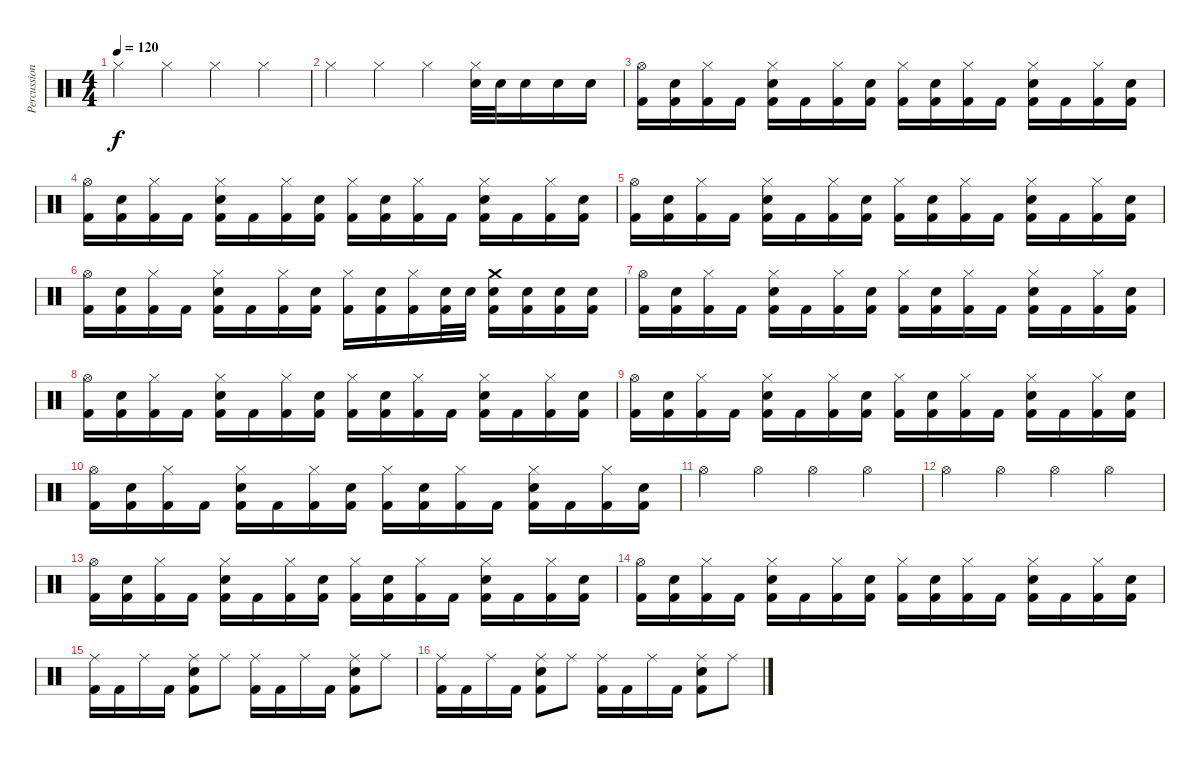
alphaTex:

\track ("Percussions" "Percussion") {instrument percussion}
\staff {score}
\articulation defaults
\ts (4 4)
\tempo 120
\clef neutral
\ks c "Hi-Hat (closed)".4{dy f} "Hi-Hat (closed)".4 "Hi-Hat (closed)".4 "Hi-Hat (closed)".4
|
"Hi-Hat (closed)".4 "Hi-Hat (closed)".4 "Hi-Hat (closed)".4 ("Hi-Hat (closed)" "Electric Snare (hit)").32 "Electric Snare (hit)".32 "Electric Snare (hit)".16 "Electric Snare (hit)".16 "Electric Snare (hit)".16 |
("Hi-Hat (open)" "Kick (hit) 2").16 ("Electric Snare (hit)" "Kick (hit) 2").16 ("Hi-Hat (closed)" "Kick (hit) 2").16 "Kick (hit) 2".16 ("Electric Snare (hit)" "Hi-Hat (closed)" "Kick (hit) 2").16 "Kick (hit) 2".16 ("Hi-Hat (closed)" "Kick (hit) 2").16 ("Electric Snare (hit)" "Kick (hit) 2").16 ("Hi-Hat (closed)" "Kick (hit) 2").16 ("Electric Snare (hit)" "Kick (hit) 2").16 ("Hi-Hat (closed)" "Kick (hit) 2").16 "Kick (hit) 2".16 ("Electric Snare (hit)" "Hi-Hat (closed)" "Kick (hit) 2").16 "Kick (hit) 2".16 ("Hi-Hat (closed)" "Kick (hit) 2").16 ("Electric Snare (hit)" "Kick (hit) 2").16 |
("Hi-Hat (open)" "Kick (hit) 2").16 ("Electric Snare (hit)" "Kick (hit) 2").16 ("Hi-Hat (closed)" "Kick (hit) 2").16 "Kick (hit) 2".16 ("Electric Snare (hit)" "Hi-Hat (closed)" "Kick (hit) 2").16 "Kick (hit) 2".16 ("Hi-Hat (closed)" "Kick (hit) 2").16 ("Electric Snare (hit)" "Kick (hit) 2").16 ("Hi-Hat (closed)" "Kick (hit) 2").16 ("Electric Snare (hit)" "Kick (hit) 2").16 ("Hi-Hat (closed)" "Kick (hit) 2").16 "Kick (hit) 2".16 ("Electric Snare (hit)" "Hi-Hat (closed)" "Kick (hit) 2").16 "Kick (hit) 2".16 ("Hi-Hat (closed)" "Kick (hit) 2").16 ("Electric Snare (hit)" "Kick (hit) 2").16 |
("Hi-Hat (open)" "Kick (hit) 2").16 ("Electric Snare (hit)" "Kick (hit) 2").16 ("Hi-Hat (closed)" "Kick (hit) 2").16 "Kick (hit) 2".16 ("Electric Snare (hit)" "Hi-Hat (closed)" "Kick (hit) 2").16 "Kick (hit) 2".16 ("Hi-Hat (closed)" "Kick (hit) 2").16 ("Electric Snare (hit)" "Kick (hit) 2").16 ("Hi-Hat (closed)" "Kick (hit) 2").16 ("Electric Snare (hit)" "Kick (hit) 2").16 ("Hi-Hat (closed)" "Kick (hit) 2").16 "Kick (hit) 2".16 ("Electric Snare (hit)" "Hi-Hat (closed)" "Kick (hit) 2").16 "Kick (hit) 2".16 ("Hi-Hat (closed)" "Kick (hit) 2").16 ("Electric Snare (hit)" "Kick (hit) 2").16 |
("Hi-Hat (open)" "Kick (hit) 2").16 ("Electric Snare (hit)" "Kick (hit) 2").16 ("Hi-Hat (closed)" "Kick (hit) 2").16 "Kick (hit) 2".16 ("Electric Snare (hit)" "Hi-Hat (closed)" "Kick (hit) 2").16 "Kick (hit) 2".16 ("Hi-Hat (closed)" "Kick (hit) 2").16 ("Electric Snare (hit)" "Kick (hit) 2").16 ("Hi-Hat (closed)" "Kick (hit) 2").16 ("Electric Snare (hit)" "Kick (hit) 2").16 ("Hi-Hat (closed)" "Kick (hit) 2").16 ("Electric Snare (hit)" "Kick (hit) 2").32 "Electric Snare (hit)".32 ("Crash medium (hit)" "Electric Snare (hit)" "Kick (hit) 2").16 ("Electric Snare (hit)" "Kick (hit) 2").16 ("Electric Snare (hit)" "Kick (hit) 2").16 ("Electric Snare (hit)" "Kick (hit) 2").16 |
("Hi-Hat (open)" "Kick (hit) 2").16 ("Electric Snare (hit)" "Kick (hit) 2").16 ("Hi-Hat (closed)" "Kick (hit) 2").16 "Kick (hit) 2".16 ("Electric Snare (hit)" "Hi-Hat (closed)" "Kick (hit) 2").16 "Kick (hit) 2".16 ("Hi-Hat (closed)" "Kick (hit) 2").16 ("Electric Snare (hit)" "Kick (hit) 2").16 ("Hi-Hat (closed)" "Kick (hit) 2").16 ("Electric Snare (hit)" "Kick (hit) 2").16 ("Hi-Hat (closed)" "Kick (hit) 2").16 "Kick (hit) 2".16 ("Electric Snare (hit)" "Hi-Hat (closed)" "Kick (hit) 2").16 "Kick (hit) 2".16 ("Hi-Hat (closed)" "Kick (hit) 2").16 ("Electric Snare (hit)" "Kick (hit) 2").16 |
("Hi-Hat (open)" "Kick (hit) 2").16 ("Electric Snare (hit)" "Kick (hit) 2").16 ("Hi-Hat (closed)" "Kick (hit) 2").16 "Kick (hit) 2".16 ("Electric Snare (hit)" "Hi-Hat (closed)" "Kick (hit) 2").16 "Kick (hit) 2".16 ("Hi-Hat (closed)" "Kick (hit) 2").16 ("Electric Snare (hit)" "Kick (hit) 2").16 ("Hi-Hat (closed)" "Kick (hit) 2").16 ("Electric Snare (hit)" "Kick (hit) 2").16 ("Hi-Hat (closed)" "Kick (hit) 2").16 "Kick (hit) 2".16 ("Electric Snare (hit)" "Hi-Hat (closed)" "Kick (hit) 2").16 "Kick (hit) 2".16 ("Hi-Hat (closed)" "Kick (hit) 2").16 ("Electric Snare (hit)" "Kick (hit) 2").16 |
("Hi-Hat (open)" "Kick (hit) 2").16 ("Electric Snare (hit)" "Kick (hit) 2").16 ("Hi-Hat (closed)" "Kick (hit) 2").16 "Kick (hit) 2".16 ("Electric Snare (hit)" "Hi-Hat (closed)" "Kick (hit) 2").16 "Kick (hit) 2".16 ("Hi-Hat (closed)" "Kick (hit) 2").16 ("Electric Snare (hit)" "Kick (hit) 2").16 ("Hi-Hat (closed)" "Kick (hit) 2").16 ("Electric Snare (hit)" "Kick (hit) 2").16 ("Hi-Hat (closed)" "Kick (hit) 2").16 "Kick (hit) 2".16 ("Electric Snare (hit)" "Hi-Hat (closed)" "Kick (hit) 2").16 "Kick (hit) 2".16 ("Hi-Hat (closed)" "Kick (hit) 2").16 ("Electric Snare (hit)" "Kick (hit) 2").16 |
("Hi-Hat (open)" "Kick (hit) 2").16 ("Electric Snare (hit)" "Kick (hit) 2").16 ("Hi-Hat (closed)" "Kick (hit) 2").16 "Kick (hit) 2".16 ("Electric Snare (hit)" "Hi-Hat (closed)" "Kick (hit) 2").16 "Kick (hit) 2".16 ("Hi-Hat (closed)" "Kick (hit) 2").16 ("Electric Snare (hit)" "Kick (hit) 2").16 ("Hi-Hat (closed)" "Kick (hit) 2").16 ("Electric Snare (hit)" "Kick (hit) 2").16 ("Hi-Hat (closed)" "Kick (hit) 2").16 "Kick (hit) 2".16 ("Electric Snare (hit)" "Hi-Hat (closed)" "Kick (hit) 2").16 "Kick (hit) 2".16 ("Hi-Hat (closed)" "Kick (hit) 2").16 ("Electric Snare (hit)" "Kick (hit) 2").16 |
"Hi-Hat (open)".4 "Hi-Hat (open)".4 "Hi-Hat (open)".4 "Hi-Hat (open)".4 |
"Hi-Hat (open)".4 "Hi-Hat (open)".4 "Hi-Hat (open)".4 "Hi-Hat (open)".4 |
("Hi-Hat (open)" "Kick (hit) 2").16 ("Electric Snare (hit)" "Kick (hit) 2").16 ("Hi-Hat (closed)" "Kick (hit) 2").16 "Kick (hit) 2".16 ("Electric Snare (hit)" "Hi-Hat (closed)" "Kick (hit) 2").16 "Kick (hit) 2".16 ("Hi-Hat (closed)" "Kick (hit) 2").16 ("Electric Snare (hit)" "Kick (hit) 2").16 ("Hi-Hat (closed)" "Kick (hit) 2").16 ("Electric Snare (hit)" "Kick (hit) 2").16 ("Hi-Hat (closed)" "Kick (hit) 2").16 "Kick (hit) 2".16 ("Electric Snare (hit)" "Hi-Hat (closed)" "Kick (hit) 2").16 "Kick (hit) 2".16 ("Hi-Hat (closed)" "Kick (hit) 2").16 ("Electric Snare (hit)" "Kick (hit) 2").16 |
("Hi-Hat (open)" "Kick (hit) 2").16 ("Electric Snare (hit)" "Kick (hit) 2").16 ("Hi-Hat (closed)" "Kick (hit) 2").16 "Kick (hit) 2".16 ("Electric Snare (hit)" "Hi-Hat (closed)" "Kick (hit) 2").16 "Kick (hit) 2".16 ("Hi-Hat (closed)" "Kick (hit) 2").16 ("Electric Snare (hit)" "Kick (hit) 2").16 ("Hi-Hat (closed)" "Kick (hit) 2").16 ("Electric Snare (hit)" "Kick (hit) 2").16 ("Hi-Hat (closed)" "Kick (hit) 2").16 "Kick (hit) 2".16 ("Electric Snare (hit)" "Hi-Hat (closed)" "Kick (hit) 2").16 "Kick (hit) 2".16 ("Hi-Hat (closed)" "Kick (hit) 2").16 ("Electric Snare (hit)" "Kick (hit) 2").16 |
("Ride (middle)" "Kick (hit) 2").16 "Kick (hit) 2".16 "Ride (middle)".16 "Kick (hit) 2".16 ("Electric Snare (hit)" "Ride (middle)" "Kick (hit) 2").8 "Ride (middle)".8 ("Ride (middle)" "Kick (hit) 2").16 "Kick (hit) 2".16 "Ride (middle)".16 "Kick (hit) 2".16 ("Electric Snare (hit)" "Ride (middle)" "Kick (hit) 2").8 "Ride (middle)".8 |
("Ride (middle)" "Kick (hit) 2").16 "Kick (hit) 2".16 "Ride (middle)".16 "Kick (hit) 2".16 ("Electric Snare (hit)" "Ride (middle)" "Kick (hit) 2").8 "Ride (middle)".8 ("Ride (middle)" "Kick (hit) 2").16 "Kick (hit) 2".16 "Ride (middle)".16 "Kick (hit) 2".16 ("Electric Snare (hit)" "Ride (middle)" "Kick (hit) 2").8 "Ride (middle)".8
